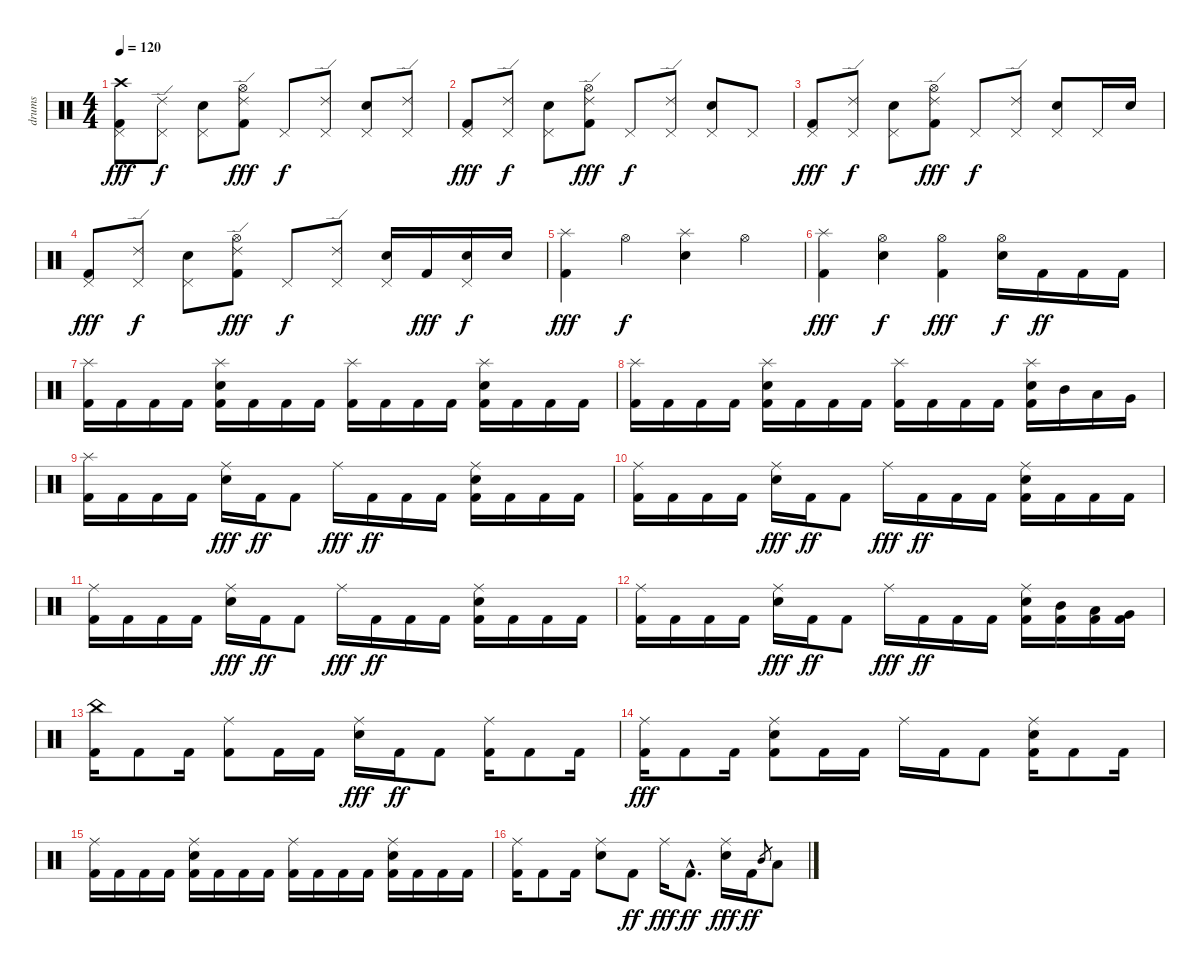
\track ("drums" "drums") {instrument percussion}
\staff {score}
\articulation defaults
\ts (4 4)
\tempo 120
\clef neutral
\ks c
("Crash high (hit)" "Pedal Hi-Hat (hit)" "Kick (hit) 2").8{dy fff} ("Ride (edge) 2" "Pedal Hi-Hat (hit)").8{dy f} ("Pedal Hi-Hat (hit)" "Electric Snare (hit)").8 ("Ride (edge) 2" "Hi-Hat (open)" "Kick (hit) 2").8{dy fff} "Pedal Hi-Hat (hit)".8{dy f} ("Ride (edge) 2" "Pedal Hi-Hat (hit)").8 ("Pedal Hi-Hat (hit)" "Electric Snare (hit)").8 ("Ride (edge) 2" "Pedal Hi-Hat (hit)").8 |
("Pedal Hi-Hat (hit)" "Kick (hit) 2").8{dy fff} ("Ride (edge) 2" "Pedal Hi-Hat (hit)").8{dy f} ("Pedal Hi-Hat (hit)" "Electric Snare (hit)").8 ("Ride (edge) 2" "Hi-Hat (open)" "Kick (hit) 2").8{dy fff} "Pedal Hi-Hat (hit)".8{dy f} ("Ride (edge) 2" "Pedal Hi-Hat (hit)").8 ("Pedal Hi-Hat (hit)" "Electric Snare (hit)").8 "Pedal Hi-Hat (hit)".8 |
("Pedal Hi-Hat (hit)" "Kick (hit) 2").8{dy fff} ("Ride (edge) 2" "Pedal Hi-Hat (hit)").8{dy f} ("Pedal Hi-Hat (hit)" "Electric Snare (hit)").8 ("Ride (edge) 2" "Hi-Hat (open)" "Kick (hit) 2").8{dy fff} "Pedal Hi-Hat (hit)".8{dy f} ("Ride (edge) 2" "Pedal Hi-Hat (hit)").8 ("Pedal Hi-Hat (hit)" "Electric Snare (hit)").8 "Pedal Hi-Hat (hit)".16 "Electric Snare (hit)".16 |
("Pedal Hi-Hat (hit)" "Kick (hit) 2").8{dy fff} ("Ride (edge) 2" "Pedal Hi-Hat (hit)").8{dy f} ("Pedal Hi-Hat (hit)" "Electric Snare (hit)").8 ("Ride (edge) 2" "Hi-Hat (open)" "Kick (hit) 2").8{dy fff} "Pedal Hi-Hat (hit)".8{dy f} ("Ride (edge) 2" "Pedal Hi-Hat (hit)").8 ("Pedal Hi-Hat (hit)" "Electric Snare (hit)").16 "Kick (hit) 2".16{dy fff} ("Pedal Hi-Hat (hit)" "Electric Snare (hit)").16{dy f} "Electric Snare (hit)".16 |
("Splash (hit)" "Kick (hit) 2").4{dy fff} "Hi-Hat (open)".4{dy f} ("Splash (hit)" "Electric Snare (hit)").4 "Hi-Hat (open)".4 |
("Splash (hit)" "Kick (hit) 2").4{dy fff} ("Hi-Hat (open)" "Electric Snare (hit)").4{dy f} ("Hi-Hat (open)" "Kick (hit) 2").4{dy fff} ("Hi-Hat (open)" "Electric Snare (hit)").16{dy f} "Kick (hit) 2".16{dy ff} "Kick (hit) 2".16 "Kick (hit) 2".16 |
("Splash (hit)" "Kick (hit) 2").16 "Kick (hit) 2".16 "Kick (hit) 2".16 "Kick (hit) 2".16 ("Splash (hit)" "Electric Snare (hit)" "Kick (hit) 2").16 "Kick (hit) 2".16 "Kick (hit) 2".16 "Kick (hit) 2".16 ("Splash (hit)" "Kick (hit) 2").16 "Kick (hit) 2".16 "Kick (hit) 2".16 "Kick (hit) 2".16 ("Splash (hit)" "Electric Snare (hit)" "Kick (hit) 2").16 "Kick (hit) 2".16 "Kick (hit) 2".16 "Kick (hit) 2".16 |
("Splash (hit)" "Kick (hit) 2").16 "Kick (hit) 2".16 "Kick (hit) 2".16 "Kick (hit) 2".16 ("Splash (hit)" "Electric Snare (hit)" "Kick (hit) 2").16 "Kick (hit) 2".16 "Kick (hit) 2".16 "Kick (hit) 2".16 ("Splash (hit)" "Kick (hit) 2").16 "Kick (hit) 2".16 "Kick (hit) 2".16 "Kick (hit) 2".16 ("Splash (hit)" "Electric Snare (hit)" "Kick (hit) 2").16 "Mid Tom (hit)".16 "Low Tom (hit)".16 "Very Low Tom (hit)".16 |
("Splash (hit)" "Kick (hit) 2").16 "Kick (hit) 2".16 "Kick (hit) 2".16 "Kick (hit) 2".16 ("Ride (middle)" "Electric Snare (hit)").16{dy fff} "Kick (hit) 2".16{dy ff} "Kick (hit) 2".8 "Ride (middle)".16{dy fff} "Kick (hit) 2".16{dy ff} "Kick (hit) 2".16 "Kick (hit) 2".16 ("Ride (middle)" "Electric Snare (hit)" "Kick (hit) 2").16 "Kick (hit) 2".16 "Kick (hit) 2".16 "Kick (hit) 2".16 |
("Ride (middle)" "Kick (hit) 2").16 "Kick (hit) 2".16 "Kick (hit) 2".16 "Kick (hit) 2".16 ("Ride (middle)" "Electric Snare (hit)").16{dy fff} "Kick (hit) 2".16{dy ff} "Kick (hit) 2".8 "Ride (middle)".16{dy fff} "Kick (hit) 2".16{dy ff} "Kick (hit) 2".16 "Kick (hit) 2".16 ("Ride (middle)" "Electric Snare (hit)" "Kick (hit) 2").16 "Kick (hit) 2".16 "Kick (hit) 2".16 "Kick (hit) 2".16 |
("Ride (middle)" "Kick (hit) 2").16 "Kick (hit) 2".16 "Kick (hit) 2".16 "Kick (hit) 2".16 ("Ride (middle)" "Electric Snare (hit)").16{dy fff} "Kick (hit) 2".16{dy ff} "Kick (hit) 2".8 "Ride (middle)".16{dy fff} "Kick (hit) 2".16{dy ff} "Kick (hit) 2".16 "Kick (hit) 2".16 ("Ride (middle)" "Electric Snare (hit)" "Kick (hit) 2").16 "Kick (hit) 2".16 "Kick (hit) 2".16 "Kick (hit) 2".16 |
("Ride (middle)" "Kick (hit) 2").16 "Kick (hit) 2".16 "Kick (hit) 2".16 "Kick (hit) 2".16 ("Ride (middle)" "Electric Snare (hit)").16{dy fff} "Kick (hit) 2".16{dy ff} "Kick (hit) 2".8 "Ride (middle)".16{dy fff} "Kick (hit) 2".16{dy ff} "Kick (hit) 2".16 "Kick (hit) 2".16 ("Ride (middle)" "Electric Snare (hit)" "Kick (hit) 2").16 ("Mid Tom (hit)" "Kick (hit) 2").16 ("Low Tom (hit)" "Kick (hit) 2").16 ("Very Low Tom (hit)" "Kick (hit) 2").16 |
("China (hit)" "Kick (hit) 2").16 "Kick (hit) 2".8 "Kick (hit) 2".16 ("Ride (middle)" "Kick (hit) 2").8 "Kick (hit) 2".16 "Kick (hit) 2".16 ("Ride (middle)" "Electric Snare (hit)").16{dy fff} "Kick (hit) 2".16{dy ff} "Kick (hit) 2".8 ("Ride (middle)" "Kick (hit) 2").16 "Kick (hit) 2".8 "Kick (hit) 2".16 |
("Ride (middle)" "Kick (hit) 2").16{dy fff} "Kick (hit) 2".8 "Kick (hit) 2".16 ("Ride (middle)" "Electric Snare (hit)" "Kick (hit) 2").8 "Kick (hit) 2".16 "Kick (hit) 2".16 "Ride (middle)".16 "Kick (hit) 2".16 "Kick (hit) 2".8 ("Ride (middle)" "Electric Snare (hit)" "Kick (hit) 2").16 "Kick (hit) 2".8 "Kick (hit) 2".16 |
("Ride (middle)" "Kick (hit) 2").16 "Kick (hit) 2".16 "Kick (hit) 2".16 "Kick (hit) 2".16 ("Ride (middle)" "Electric Snare (hit)" "Kick (hit) 2").16 "Kick (hit) 2".16 "Kick (hit) 2".16 "Kick (hit) 2".16 ("Ride (middle)" "Kick (hit) 2").16 "Kick (hit) 2".16 "Kick (hit) 2".16 "Kick (hit) 2".16 ("Ride (middle)" "Electric Snare (hit)" "Kick (hit) 2").16 "Kick (hit) 2".16 "Kick (hit) 2".16 "Kick (hit) 2".16 |
("Ride (middle)" "Kick (hit) 2").16 "Kick (hit) 2".8 "Kick (hit) 2".16 ("Ride (middle)" "Electric Snare (hit)").8 "Kick (hit) 2".8{dy ff} "Ride (middle)".16{dy fff} "Kick (hit) 2"{hac}.8{d dy ff} ("Ride (middle)" "Electric Snare (hit)").16{dy fff} "Kick (hit) 2".16{dy ff} "Mid Tom (hit)".8{gr} "Low Tom (hit)".8
